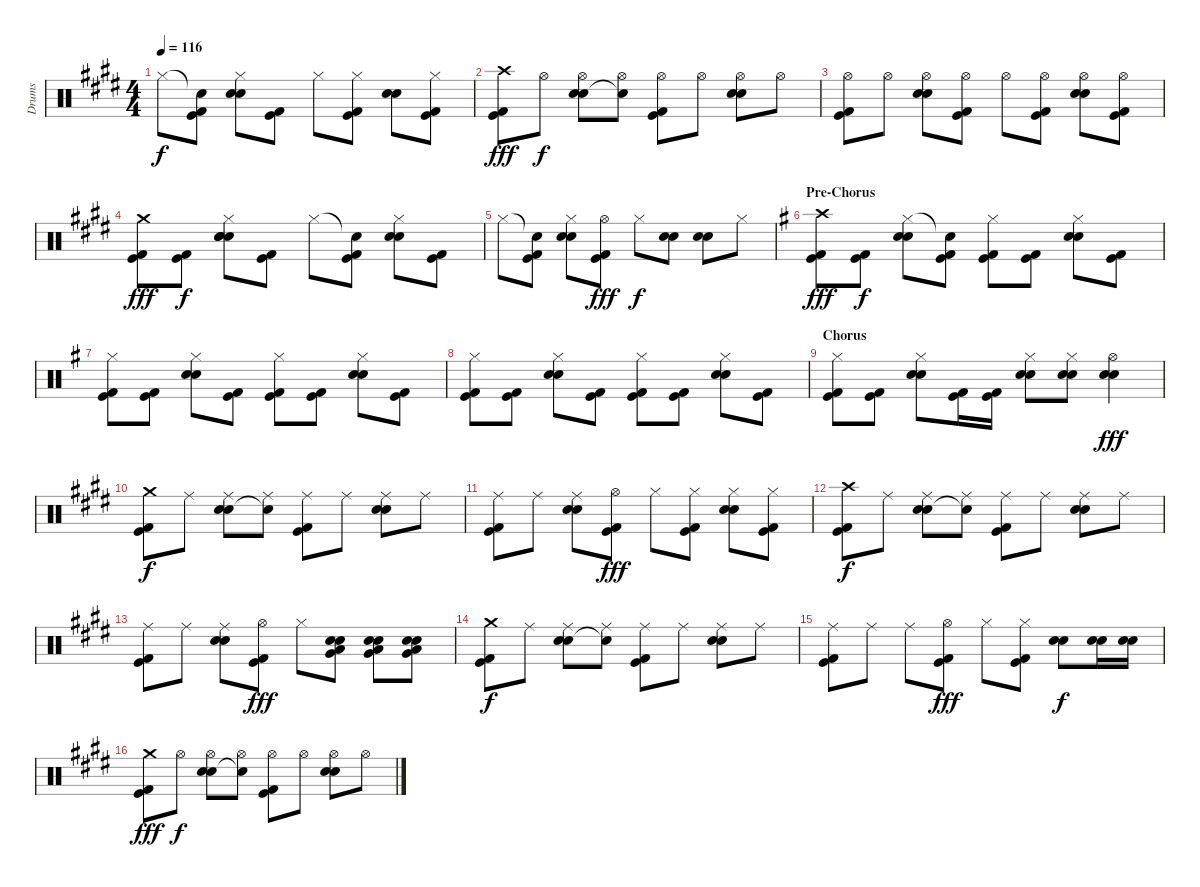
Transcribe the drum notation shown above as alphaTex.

\track ("Drums" "Drums") {instrument percussion}
\staff {score}
\articulation defaults
\ts (4 4)
\tempo 116
\clef neutral
\ks e "Hi-Hat (closed)".8{dy f}
("Snare (hit)"{t} "Kick (hit)" "Kick (hit) 2").8 ("Hi-Hat (closed)" "Electric Snare (hit)" "Snare (hit) 2").8 ("Kick (hit)" "Kick (hit) 2").8 "Hi-Hat (closed)".8 ("Hi-Hat (closed)" "Kick (hit)" "Kick (hit) 2").8 ("Electric Snare (hit)" "Snare (hit) 2").8 ("Hi-Hat (closed)" "Kick (hit)" "Kick (hit) 2").8 |
("Crash high (hit)" "Kick (hit)" "Kick (hit) 2").8{dy fff} "Hi-Hat (open)".8{dy f} ("Hi-Hat (open)" "Electric Snare (hit)" "Snare (hit) 2").8 ("Hi-Hat (open)" "Snare (hit)"{t}).8 ("Hi-Hat (open)" "Kick (hit)" "Kick (hit) 2").8 "Hi-Hat (open)".8 ("Hi-Hat (open)" "Electric Snare (hit)" "Snare (hit) 2").8 "Hi-Hat (open)".8 |
("Hi-Hat (open)" "Kick (hit)" "Kick (hit) 2").8 "Hi-Hat (open)".8 ("Hi-Hat (open)" "Electric Snare (hit)" "Snare (hit) 2").8 ("Hi-Hat (open)" "Kick (hit)" "Kick (hit) 2").8 "Hi-Hat (open)".8 ("Hi-Hat (open)" "Kick (hit)" "Kick (hit) 2").8 ("Hi-Hat (open)" "Electric Snare (hit)" "Snare (hit) 2").8 ("Hi-Hat (open)" "Kick (hit)" "Kick (hit) 2").8 |
("Crash medium (hit)" "Kick (hit)" "Kick (hit) 2").8{dy fff} ("Kick (hit)" "Kick (hit) 2").8{dy f} ("Hi-Hat (closed)" "Electric Snare (hit)" "Snare (hit) 2" "Snare (hit)").8 ("Kick (hit)" "Kick (hit) 2").8 "Hi-Hat (closed)".8 ("Snare (hit)"{t} "Kick (hit)" "Kick (hit) 2").8 ("Hi-Hat (closed)" "Electric Snare (hit)" "Snare (hit) 2").8 ("Kick (hit)" "Kick (hit) 2").8 |
"Hi-Hat (closed)".8 ("Snare (hit)"{t} "Kick (hit)" "Kick (hit) 2").8 ("Hi-Hat (closed)" "Electric Snare (hit)" "Snare (hit) 2").8 ("Hi-Hat (open)" "Kick (hit)" "Kick (hit) 2").8{dy fff} "Hi-Hat (closed)".8{dy f} ("Electric Snare (hit)" "Snare (hit) 2").8 ("Electric Snare (hit)" "Snare (hit) 2").8 "Hi-Hat (closed)".8 |
\section ("" "Pre-Chorus")
\ks g
("Crash high (hit)" "Kick (hit)" "Kick (hit) 2").8{dy fff} ("Kick (hit)" "Kick (hit) 2").8{dy f} ("Hi-Hat (closed)" "Electric Snare (hit)" "Snare (hit) 2").8 ("Snare (hit)"{t} "Kick (hit)" "Kick (hit) 2").8 ("Hi-Hat (closed)" "Kick (hit)" "Kick (hit) 2").8 ("Kick (hit)" "Kick (hit) 2").8 ("Hi-Hat (closed)" "Electric Snare (hit)" "Snare (hit) 2").8 ("Kick (hit)" "Kick (hit) 2").8 |
("Hi-Hat (closed)" "Kick (hit)" "Kick (hit) 2").8 ("Kick (hit)" "Kick (hit) 2").8 ("Hi-Hat (closed)" "Electric Snare (hit)" "Snare (hit) 2").8 ("Kick (hit)" "Kick (hit) 2").8 ("Hi-Hat (closed)" "Kick (hit)" "Kick (hit) 2").8 ("Kick (hit)" "Kick (hit) 2").8 ("Hi-Hat (closed)" "Electric Snare (hit)" "Snare (hit) 2").8 ("Kick (hit)" "Kick (hit) 2").8 |
("Hi-Hat (closed)" "Kick (hit)" "Kick (hit) 2").8 ("Kick (hit)" "Kick (hit) 2").8 ("Hi-Hat (closed)" "Electric Snare (hit)" "Snare (hit) 2").8 ("Kick (hit)" "Kick (hit) 2").8 ("Hi-Hat (closed)" "Kick (hit)" "Kick (hit) 2").8 ("Kick (hit)" "Kick (hit) 2").8 ("Hi-Hat (closed)" "Electric Snare (hit)" "Snare (hit) 2").8 ("Kick (hit)" "Kick (hit) 2").8 |
\section ("" "Chorus")
("Hi-Hat (closed)" "Kick (hit)" "Kick (hit) 2").8 ("Kick (hit)" "Kick (hit) 2").8 ("Hi-Hat (closed)" "Electric Snare (hit)" "Snare (hit) 2").8 ("Kick (hit)" "Kick (hit) 2").16 ("Kick (hit)" "Kick (hit) 2").16 ("Hi-Hat (closed)" "Electric Snare (hit)" "Snare (hit) 2").8 ("Hi-Hat (closed)" "Electric Snare (hit)" "Snare (hit) 2").8 ("Hi-Hat (open)" "Electric Snare (hit)" "Snare (hit) 2").4{dy fff} |
\ks e
("Crash medium (hit)" "Kick (hit)" "Kick (hit) 2").8{dy f} "Ride (middle)".8 ("Ride (middle)" "Electric Snare (hit)" "Snare (hit) 2").8 ("Ride (middle)" "Snare (hit)"{t}).8 ("Ride (middle)" "Kick (hit)" "Kick (hit) 2").8 "Ride (middle)".8 ("Ride (middle)" "Electric Snare (hit)" "Snare (hit) 2").8 "Ride (middle)".8 |
("Ride (middle)" "Kick (hit)" "Kick (hit) 2").8 "Ride (middle)".8 ("Ride (middle)" "Electric Snare (hit)" "Snare (hit) 2").8 ("Hi-Hat (open)" "Kick (hit)" "Kick (hit) 2").8{dy fff} "Hi-Hat (closed)".8 ("Hi-Hat (closed)" "Kick (hit)" "Kick (hit) 2").8 ("Hi-Hat (closed)" "Electric Snare (hit)" "Snare (hit) 2").8 ("Hi-Hat (closed)" "Kick (hit)" "Kick (hit) 2").8 |
("Crash high (hit)" "Kick (hit)" "Kick (hit) 2").8{dy f} "Ride (middle)".8 ("Ride (middle)" "Electric Snare (hit)" "Snare (hit) 2").8 ("Ride (middle)" "Snare (hit)"{t}).8 ("Ride (middle)" "Kick (hit)" "Kick (hit) 2").8 "Ride (middle)".8 ("Ride (middle)" "Electric Snare (hit)" "Snare (hit) 2").8 "Ride (middle)".8 |
("Ride (middle)" "Kick (hit)" "Kick (hit) 2").8 "Ride (middle)".8 ("Ride (middle)" "Electric Snare (hit)" "Snare (hit) 2").8 ("Hi-Hat (open)" "Kick (hit)" "Kick (hit) 2").8{dy fff} "Hi-Hat (closed)".8 ("Electric Snare (hit)" "Snare (hit) 2" "Very Low Tom (hit)" "Low Floor Tom (hit)").8 ("Electric Snare (hit)" "Snare (hit) 2" "Very Low Tom (hit)" "Low Floor Tom (hit)").8 ("Electric Snare (hit)" "Snare (hit) 2" "Very Low Tom (hit)" "Low Floor Tom (hit)").8 |
("Crash medium (hit)" "Kick (hit)" "Kick (hit) 2").8{dy f} "Ride (middle)".8 ("Ride (middle)" "Electric Snare (hit)" "Snare (hit) 2").8 ("Ride (middle)" "Snare (hit)"{t}).8 ("Ride (middle)" "Kick (hit)" "Kick (hit) 2").8 "Ride (middle)".8 ("Ride (middle)" "Electric Snare (hit)" "Snare (hit) 2").8 "Ride (middle)".8 |
("Ride (middle)" "Kick (hit)" "Kick (hit) 2").8 "Ride (middle)".8 "Ride (middle)".8 ("Hi-Hat (open)" "Kick (hit)" "Kick (hit) 2").8{dy fff} "Hi-Hat (closed)".8 ("Hi-Hat (closed)" "Kick (hit)" "Kick (hit) 2").8 ("Electric Snare (hit)" "Snare (hit) 2").8{dy f} ("Electric Snare (hit)" "Snare (hit) 2").16 ("Electric Snare (hit)" "Snare (hit) 2").16 |
("Crash medium (hit)" "Kick (hit)" "Kick (hit) 2").8{dy fff} "Hi-Hat (open)".8{dy f} ("Hi-Hat (open)" "Electric Snare (hit)" "Snare (hit) 2").8 ("Hi-Hat (open)" "Snare (hit)"{t}).8 ("Hi-Hat (open)" "Kick (hit)" "Kick (hit) 2").8 "Hi-Hat (open)".8 ("Hi-Hat (open)" "Electric Snare (hit)" "Snare (hit) 2").8 "Hi-Hat (open)".8
